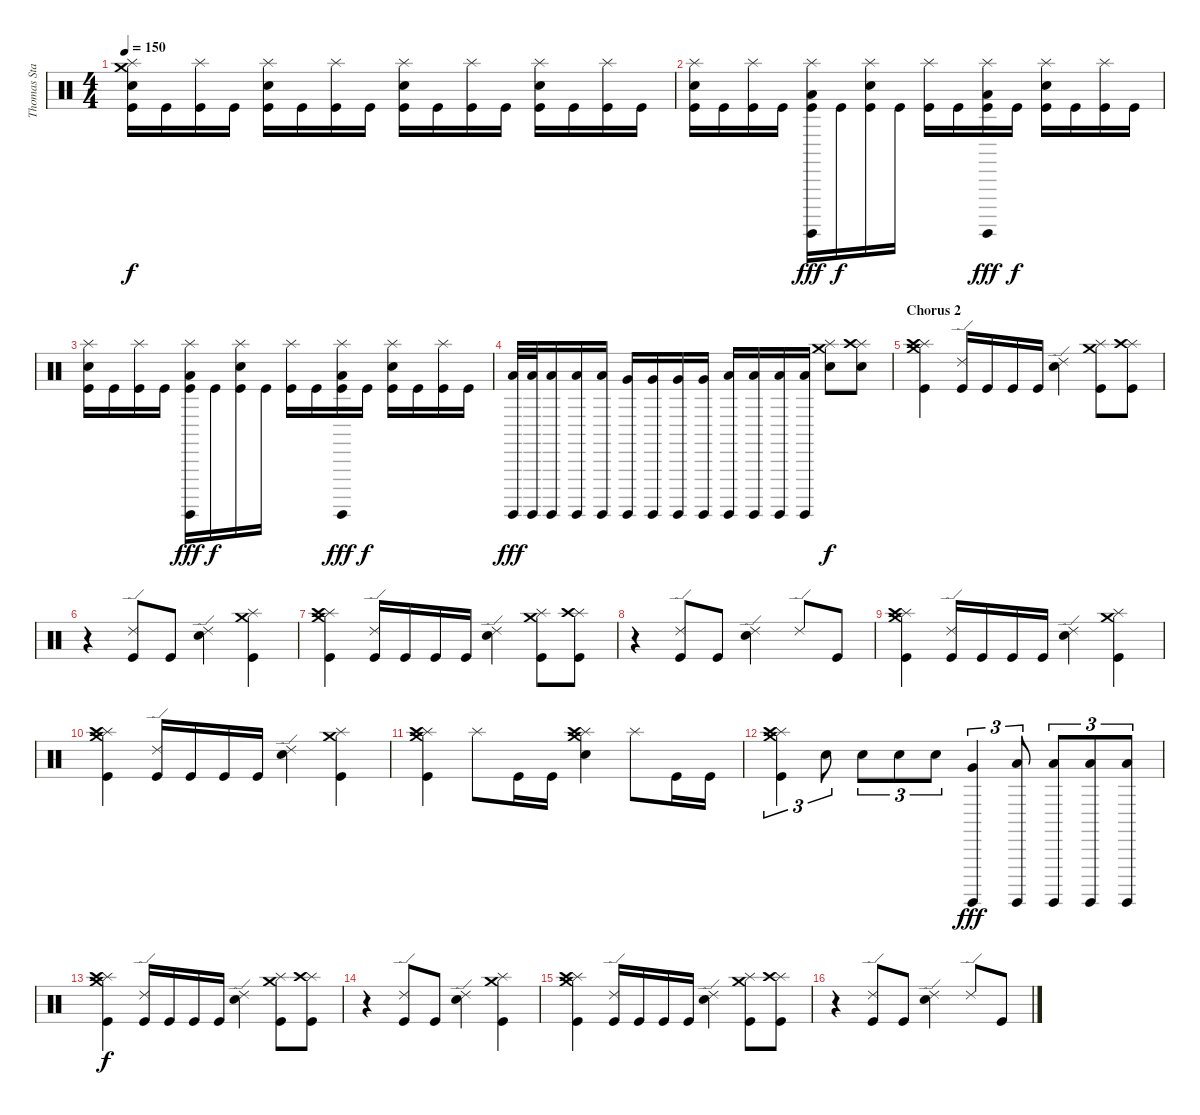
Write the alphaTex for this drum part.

\track ("Thomas Stauch" "Thomas Sta") {instrument percussion}
\staff {score}
\articulation defaults
\ts (4 4)
\tempo 150
\clef neutral
\ks c
("Crash medium (hit)" "Splash (hit)" "Electric Snare (hit)" "Kick (hit)").16{dy f} "Kick (hit)".16 ("Splash (hit)" "Kick (hit)").16 "Kick (hit)".16 ("Splash (hit)" "Electric Snare (hit)" "Kick (hit)").16 "Kick (hit)".16 ("Splash (hit)" "Kick (hit)").16 "Kick (hit)".16 ("Splash (hit)" "Electric Snare (hit)" "Kick (hit)").16 "Kick (hit)".16 ("Splash (hit)" "Kick (hit)").16 "Kick (hit)".16 ("Splash (hit)" "Electric Snare (hit)" "Kick (hit)").16 "Kick (hit)".16 ("Splash (hit)" "Kick (hit)").16 "Kick (hit)".16 |
("Splash (hit)" "Electric Snare (hit)" "Kick (hit)").16 "Kick (hit)".16 ("Splash (hit)" "Kick (hit)").16 "Kick (hit)".16 ("Splash (hit)" "Surdo (hit)" "Low Floor Tom (hit)" "Kick (hit)").16{dy fff} "Kick (hit)".16{dy f} ("Splash (hit)" "Electric Snare (hit)" "Kick (hit)").16 "Kick (hit)".16 ("Splash (hit)" "Kick (hit)").16 "Kick (hit)".16 ("Splash (hit)" "Surdo (hit)" "Low Floor Tom (hit)" "Kick (hit)").16{dy fff} "Kick (hit)".16{dy f} ("Splash (hit)" "Electric Snare (hit)" "Kick (hit)").16 "Kick (hit)".16 ("Splash (hit)" "Kick (hit)").16 "Kick (hit)".16 |
("Splash (hit)" "Electric Snare (hit)" "Kick (hit)").16 "Kick (hit)".16 ("Splash (hit)" "Kick (hit)").16 "Kick (hit)".16 ("Splash (hit)" "Surdo (hit)" "Low Floor Tom (hit)" "Kick (hit)").16{dy fff} "Kick (hit)".16{dy f} ("Splash (hit)" "Electric Snare (hit)" "Kick (hit)").16 "Kick (hit)".16 ("Splash (hit)" "Kick (hit)").16 "Kick (hit)".16 ("Splash (hit)" "Surdo (hit)" "Low Floor Tom (hit)" "Kick (hit)").16{dy fff} "Kick (hit)".16{dy f} ("Splash (hit)" "Electric Snare (hit)" "Kick (hit)").16 "Kick (hit)".16 ("Splash (hit)" "Kick (hit)").16 "Kick (hit)".16 |
("Surdo (hit)" "Low Tom (hit)").32{dy fff} ("Surdo (hit)" "Low Tom (hit)").32 ("Surdo (hit)" "Low Tom (hit)").16 ("Surdo (hit)" "Low Tom (hit)").16 ("Surdo (hit)" "Low Tom (hit)").16 ("Surdo (hit)" "Very Low Tom (hit)").16 ("Surdo (hit)" "Very Low Tom (hit)").16 ("Surdo (hit)" "Very Low Tom (hit)").16 ("Surdo (hit)" "Very Low Tom (hit)").16 ("Surdo (hit)" "Low Floor Tom (hit)").16 ("Surdo (hit)" "Low Floor Tom (hit)").16 ("Surdo (hit)" "Low Floor Tom (hit)").16 ("Surdo (hit)" "Low Floor Tom (hit)").16 ("Crash medium (hit)" "Splash (hit)" "Electric Snare (hit)").8{dy f} ("Splash (hit)" "Crash high (hit)" "Electric Snare (hit)").8 |
\section ("" "Chorus 2")
("Crash medium (hit)" "Splash (hit)" "Crash high (hit)" "Kick (hit)").4 ("Ride (edge) 2" "Kick (hit)").16 "Kick (hit)".16 "Kick (hit)".16 "Kick (hit)".16 ("Ride (edge) 2" "Electric Snare (hit)").4 ("Crash medium (hit)" "Splash (hit)" "Kick (hit)").8 ("Splash (hit)" "Crash high (hit)" "Kick (hit)").8 |
r.4 ("Ride (edge) 2" "Kick (hit)").8 "Kick (hit)".8 ("Ride (edge) 2" "Electric Snare (hit)").4 ("Crash medium (hit)" "Splash (hit)" "Kick (hit)").4 |
("Crash medium (hit)" "Splash (hit)" "Crash high (hit)" "Kick (hit)").4 ("Ride (edge) 2" "Kick (hit)").16 "Kick (hit)".16 "Kick (hit)".16 "Kick (hit)".16 ("Ride (edge) 2" "Electric Snare (hit)").4 ("Crash medium (hit)" "Splash (hit)" "Kick (hit)").8 ("Splash (hit)" "Crash high (hit)" "Kick (hit)").8 |
r.4 ("Ride (edge) 2" "Kick (hit)").8 "Kick (hit)".8 ("Ride (edge) 2" "Electric Snare (hit)").4 "Ride (edge) 2".8 "Kick (hit)".8 |
("Crash medium (hit)" "Splash (hit)" "Crash high (hit)" "Kick (hit)").4 ("Ride (edge) 2" "Kick (hit)").16 "Kick (hit)".16 "Kick (hit)".16 "Kick (hit)".16 ("Ride (edge) 2" "Electric Snare (hit)").4 ("Crash medium (hit)" "Splash (hit)" "Kick (hit)").4 |
("Crash medium (hit)" "Splash (hit)" "Crash high (hit)" "Kick (hit)").4 ("Ride (edge) 2" "Kick (hit)").16 "Kick (hit)".16 "Kick (hit)".16 "Kick (hit)".16 ("Ride (edge) 2" "Electric Snare (hit)").4 ("Crash medium (hit)" "Splash (hit)" "Kick (hit)").4 |
("Crash medium (hit)" "Splash (hit)" "Crash high (hit)" "Kick (hit)").4 "Splash (hit)".8 "Kick (hit)".16 "Kick (hit)".16 ("Crash medium (hit)" "Splash (hit)" "Crash high (hit)" "Electric Snare (hit)").4 "Splash (hit)".8 "Kick (hit)".16 "Kick (hit)".16 |
("Crash medium (hit)" "Splash (hit)" "Crash high (hit)" "Kick (hit)").4{tu (3 2)} "Electric Snare (hit)".8{tu (3 2)} "Electric Snare (hit)".8{tu (3 2)} "Electric Snare (hit)".8{tu (3 2)} "Electric Snare (hit)".8{tu (3 2)} ("Surdo (hit)" "Very Low Tom (hit)").4{tu (3 2) dy fff} ("Surdo (hit)" "Low Floor Tom (hit)").8{tu (3 2)} ("Surdo (hit)" "Low Floor Tom (hit)").8{tu (3 2)} ("Surdo (hit)" "Low Floor Tom (hit)").8{tu (3 2)} ("Surdo (hit)" "Low Floor Tom (hit)").8{tu (3 2)} |
("Crash medium (hit)" "Splash (hit)" "Crash high (hit)" "Kick (hit)").4{dy f} ("Ride (edge) 2" "Kick (hit)").16 "Kick (hit)".16 "Kick (hit)".16 "Kick (hit)".16 ("Ride (edge) 2" "Electric Snare (hit)").4 ("Crash medium (hit)" "Splash (hit)" "Kick (hit)").8 ("Splash (hit)" "Crash high (hit)" "Kick (hit)").8 |
r.4 ("Ride (edge) 2" "Kick (hit)").8 "Kick (hit)".8 ("Ride (edge) 2" "Electric Snare (hit)").4 ("Crash medium (hit)" "Splash (hit)" "Kick (hit)").4 |
("Crash medium (hit)" "Splash (hit)" "Crash high (hit)" "Kick (hit)").4 ("Ride (edge) 2" "Kick (hit)").16 "Kick (hit)".16 "Kick (hit)".16 "Kick (hit)".16 ("Ride (edge) 2" "Electric Snare (hit)").4 ("Crash medium (hit)" "Splash (hit)" "Kick (hit)").8 ("Splash (hit)" "Crash high (hit)" "Kick (hit)").8 |
r.4 ("Ride (edge) 2" "Kick (hit)").8 "Kick (hit)".8 ("Ride (edge) 2" "Electric Snare (hit)").4 "Ride (edge) 2".8 "Kick (hit)".8
